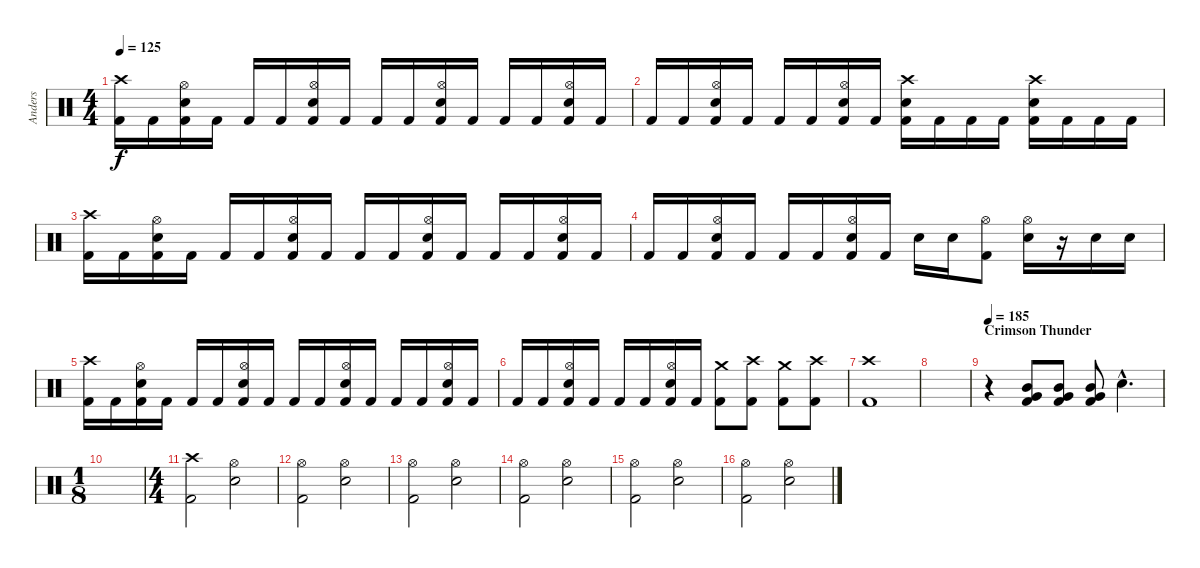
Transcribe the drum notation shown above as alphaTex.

\track ("Anders" "Anders") {instrument percussion}
\staff {score}
\articulation defaults
\ts (4 4)
\tempo 125
\clef neutral
\ks c
("Crash high (hit)" "Kick (hit) 2").16{dy f} "Kick (hit) 2".16 ("Hi-Hat (open)" "Electric Snare (hit)" "Kick (hit) 2").16 "Kick (hit) 2".16 "Kick (hit) 2".16 "Kick (hit) 2".16 ("Hi-Hat (open)" "Electric Snare (hit)" "Kick (hit) 2").16 "Kick (hit) 2".16 "Kick (hit) 2".16 "Kick (hit) 2".16 ("Hi-Hat (open)" "Electric Snare (hit)" "Kick (hit) 2").16 "Kick (hit) 2".16 "Kick (hit) 2".16 "Kick (hit) 2".16 ("Hi-Hat (open)" "Electric Snare (hit)" "Kick (hit) 2").16 "Kick (hit) 2".16 |
"Kick (hit) 2".16 "Kick (hit) 2".16 ("Hi-Hat (open)" "Electric Snare (hit)" "Kick (hit) 2").16 "Kick (hit) 2".16 "Kick (hit) 2".16 "Kick (hit) 2".16 ("Hi-Hat (open)" "Electric Snare (hit)" "Kick (hit) 2").16 "Kick (hit) 2".16 ("Crash high (hit)" "Electric Snare (hit)" "Kick (hit) 2").16 "Kick (hit) 2".16 "Kick (hit) 2".16 "Kick (hit) 2".16 ("Crash high (hit)" "Electric Snare (hit)" "Kick (hit) 2").16 "Kick (hit) 2".16 "Kick (hit) 2".16 "Kick (hit) 2".16 |
("Crash high (hit)" "Kick (hit) 2").16 "Kick (hit) 2".16 ("Hi-Hat (open)" "Electric Snare (hit)" "Kick (hit) 2").16 "Kick (hit) 2".16 "Kick (hit) 2".16 "Kick (hit) 2".16 ("Hi-Hat (open)" "Electric Snare (hit)" "Kick (hit) 2").16 "Kick (hit) 2".16 "Kick (hit) 2".16 "Kick (hit) 2".16 ("Hi-Hat (open)" "Electric Snare (hit)" "Kick (hit) 2").16 "Kick (hit) 2".16 "Kick (hit) 2".16 "Kick (hit) 2".16 ("Hi-Hat (open)" "Electric Snare (hit)" "Kick (hit) 2").16 "Kick (hit) 2".16 |
"Kick (hit) 2".16 "Kick (hit) 2".16 ("Hi-Hat (open)" "Electric Snare (hit)" "Kick (hit) 2").16 "Kick (hit) 2".16 "Kick (hit) 2".16 "Kick (hit) 2".16 ("Hi-Hat (open)" "Electric Snare (hit)" "Kick (hit) 2").16 "Kick (hit) 2".16 "Electric Snare (hit)".16 "Electric Snare (hit)".16 ("Hi-Hat (open)" "Kick (hit) 2").8 ("Hi-Hat (open)" "Electric Snare (hit)").16 r.16 "Electric Snare (hit)".16 "Electric Snare (hit)".16 |
("Crash high (hit)" "Kick (hit) 2").16 "Kick (hit) 2".16 ("Hi-Hat (open)" "Electric Snare (hit)" "Kick (hit) 2").16 "Kick (hit) 2".16 "Kick (hit) 2".16 "Kick (hit) 2".16 ("Hi-Hat (open)" "Electric Snare (hit)" "Kick (hit) 2").16 "Kick (hit) 2".16 "Kick (hit) 2".16 "Kick (hit) 2".16 ("Hi-Hat (open)" "Electric Snare (hit)" "Kick (hit) 2").16 "Kick (hit) 2".16 "Kick (hit) 2".16 "Kick (hit) 2".16 ("Hi-Hat (open)" "Electric Snare (hit)" "Kick (hit) 2").16 "Kick (hit) 2".16 |
"Kick (hit) 2".16 "Kick (hit) 2".16 ("Hi-Hat (open)" "Electric Snare (hit)" "Kick (hit) 2").16 "Kick (hit) 2".16 "Kick (hit) 2".16 "Kick (hit) 2".16 ("Hi-Hat (open)" "Electric Snare (hit)" "Kick (hit) 2").16 "Kick (hit) 2".16 ("Crash medium (hit)" "Kick (hit) 2").8 ("Crash high (hit)" "Kick (hit) 2").8 ("Crash medium (hit)" "Kick (hit) 2").8 ("Crash high (hit)" "Kick (hit) 2").8 |
("Crash high (hit)" "Kick (hit) 2").1 |
|
\section ("" "Crimson Thunder")
\tempo 181
\tempo 185
r.4{volume 16} ("Mid Tom (hit)" "Very Low Tom (hit)" "Kick (hit) 2").8 ("Mid Tom (hit)" "Very Low Tom (hit)" "Kick (hit) 2").8 ("Mid Tom (hit)" "Very Low Tom (hit)" "Kick (hit) 2").8 "Electric Snare (hit)"{hac}.4{d} |
\ts (1 8)
|
\ts (4 4)
("Crash high (hit)" "Kick (hit) 2").2 ("Hi-Hat (open)" "Electric Snare (hit)").2 |
("Hi-Hat (open)" "Kick (hit) 2").2 ("Hi-Hat (open)" "Electric Snare (hit)").2 |
("Hi-Hat (open)" "Kick (hit) 2").2 ("Hi-Hat (open)" "Electric Snare (hit)").2 |
("Hi-Hat (open)" "Kick (hit) 2").2 ("Hi-Hat (open)" "Electric Snare (hit)").2 |
("Hi-Hat (open)" "Kick (hit) 2").2 ("Hi-Hat (open)" "Electric Snare (hit)").2 |
("Hi-Hat (open)" "Kick (hit) 2").2 ("Hi-Hat (open)" "Electric Snare (hit)").2
